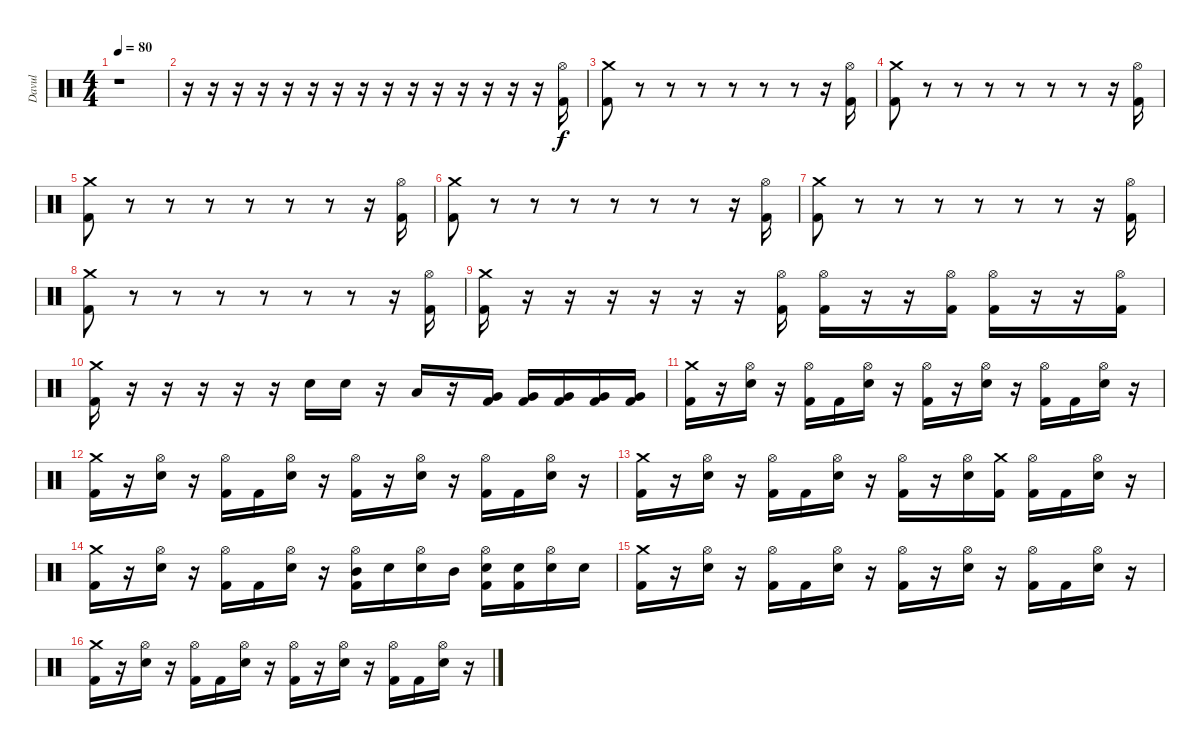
\track ("Davul" "Davul") {instrument percussion}
\staff {score}
\articulation defaults
\ts (4 4)
\tempo 80
\clef neutral
\ks c
r.1{dy f} |
r.16 r.16 r.16 r.16 r.16 r.16 r.16 r.16 r.16 r.16 r.16 r.16 r.16 r.16 r.16 ("Hi-Hat (open)" "Kick (hit) 2").16 |
("Crash medium (hit)" "Kick (hit) 2").8 r.8 r.8 r.8 r.8 r.8 r.8 r.16 ("Hi-Hat (open)" "Kick (hit) 2").16 |
("Crash medium (hit)" "Kick (hit) 2").8 r.8 r.8 r.8 r.8 r.8 r.8 r.16 ("Hi-Hat (open)" "Kick (hit) 2").16 |
("Crash medium (hit)" "Kick (hit) 2").8 r.8 r.8 r.8 r.8 r.8 r.8 r.16 ("Hi-Hat (open)" "Kick (hit) 2").16 |
("Crash medium (hit)" "Kick (hit) 2").8 r.8 r.8 r.8 r.8 r.8 r.8 r.16 ("Hi-Hat (open)" "Kick (hit) 2").16 |
("Crash medium (hit)" "Kick (hit) 2").8 r.8 r.8 r.8 r.8 r.8 r.8 r.16 ("Hi-Hat (open)" "Kick (hit) 2").16 |
("Crash medium (hit)" "Kick (hit) 2").8 r.8 r.8 r.8 r.8 r.8 r.8 r.16 ("Hi-Hat (open)" "Kick (hit) 2").16 |
("Crash medium (hit)" "Kick (hit) 2").16 r.16 r.16 r.16 r.16 r.16 r.16 ("Hi-Hat (open)" "Kick (hit) 2").16 ("Hi-Hat (open)" "Kick (hit) 2").16 r.16 r.16 ("Hi-Hat (open)" "Kick (hit) 2").16 ("Hi-Hat (open)" "Kick (hit) 2").16 r.16 r.16 ("Hi-Hat (open)" "Kick (hit) 2").16 |
("Crash medium (hit)" "Kick (hit) 2").16 r.16 r.16 r.16 r.16 r.16 "Snare (hit) 2".16 "Snare (hit) 2".16 r.16 "Low Tom (hit)".16 r.16 ("Very Low Tom (hit)" "Kick (hit) 2").16 ("Very Low Tom (hit)" "Kick (hit) 2").16 ("Very Low Tom (hit)" "Kick (hit) 2").16 ("Very Low Tom (hit)" "Kick (hit) 2").16 ("Very Low Tom (hit)" "Kick (hit) 2").16 |
("Crash medium (hit)" "Kick (hit) 2").16 r.16 ("Hi-Hat (open)" "Snare (hit) 2").16 r.16 ("Hi-Hat (open)" "Kick (hit) 2").16 "Kick (hit) 2".16 ("Hi-Hat (open)" "Snare (hit) 2").16 r.16 ("Hi-Hat (open)" "Kick (hit) 2").16 r.16 ("Hi-Hat (open)" "Snare (hit) 2").16 r.16 ("Hi-Hat (open)" "Kick (hit) 2").16 "Kick (hit) 2".16 ("Hi-Hat (open)" "Snare (hit) 2").16 r.16 |
("Crash medium (hit)" "Kick (hit) 2").16 r.16 ("Hi-Hat (open)" "Snare (hit) 2").16 r.16 ("Hi-Hat (open)" "Kick (hit) 2").16 "Kick (hit) 2".16 ("Hi-Hat (open)" "Snare (hit) 2").16 r.16 ("Hi-Hat (open)" "Kick (hit) 2").16 r.16 ("Hi-Hat (open)" "Snare (hit) 2").16 r.16 ("Hi-Hat (open)" "Kick (hit) 2").16 "Kick (hit) 2".16 ("Hi-Hat (open)" "Snare (hit) 2").16 r.16 |
("Crash medium (hit)" "Kick (hit) 2").16 r.16 ("Hi-Hat (open)" "Snare (hit) 2").16 r.16 ("Hi-Hat (open)" "Kick (hit) 2").16 "Kick (hit) 2".16 ("Hi-Hat (open)" "Snare (hit) 2").16 r.16 ("Hi-Hat (open)" "Kick (hit) 2").16 r.16 ("Hi-Hat (open)" "Snare (hit) 2").16 ("Crash medium (hit)" "Kick (hit) 2").16 ("Hi-Hat (open)" "Kick (hit) 2").16 "Kick (hit) 2".16 ("Hi-Hat (open)" "Snare (hit) 2").16 r.16 |
("Crash medium (hit)" "Kick (hit) 2").16 r.16 ("Hi-Hat (open)" "Snare (hit) 2").16 r.16 ("Hi-Hat (open)" "Kick (hit) 2").16 "Kick (hit) 2".16 ("Hi-Hat (open)" "Snare (hit) 2").16 r.16 ("Hi-Hat (open)" "Mid Tom (hit)" "Kick (hit) 2").16 "Snare (hit) 2".16 ("Hi-Hat (open)" "Snare (hit) 2").16 "Mid Tom (hit)".16 ("Hi-Hat (open)" "Snare (hit) 2" "Kick (hit) 2").16 ("Snare (hit) 2" "Kick (hit) 2").16 ("Hi-Hat (open)" "Snare (hit) 2").16 "Snare (hit) 2".16 |
("Crash medium (hit)" "Kick (hit) 2").16 r.16 ("Hi-Hat (open)" "Snare (hit) 2").16 r.16 ("Hi-Hat (open)" "Kick (hit) 2").16 "Kick (hit) 2".16 ("Hi-Hat (open)" "Snare (hit) 2").16 r.16 ("Hi-Hat (open)" "Kick (hit) 2").16 r.16 ("Hi-Hat (open)" "Snare (hit) 2").16 r.16 ("Hi-Hat (open)" "Kick (hit) 2").16 "Kick (hit) 2".16 ("Hi-Hat (open)" "Snare (hit) 2").16 r.16 |
("Crash medium (hit)" "Kick (hit) 2").16 r.16 ("Hi-Hat (open)" "Snare (hit) 2").16 r.16 ("Hi-Hat (open)" "Kick (hit) 2").16 "Kick (hit) 2".16 ("Hi-Hat (open)" "Snare (hit) 2").16 r.16 ("Hi-Hat (open)" "Kick (hit) 2").16 r.16 ("Hi-Hat (open)" "Snare (hit) 2").16 r.16 ("Hi-Hat (open)" "Kick (hit) 2").16 "Kick (hit) 2".16 ("Hi-Hat (open)" "Snare (hit) 2").16 r.16
